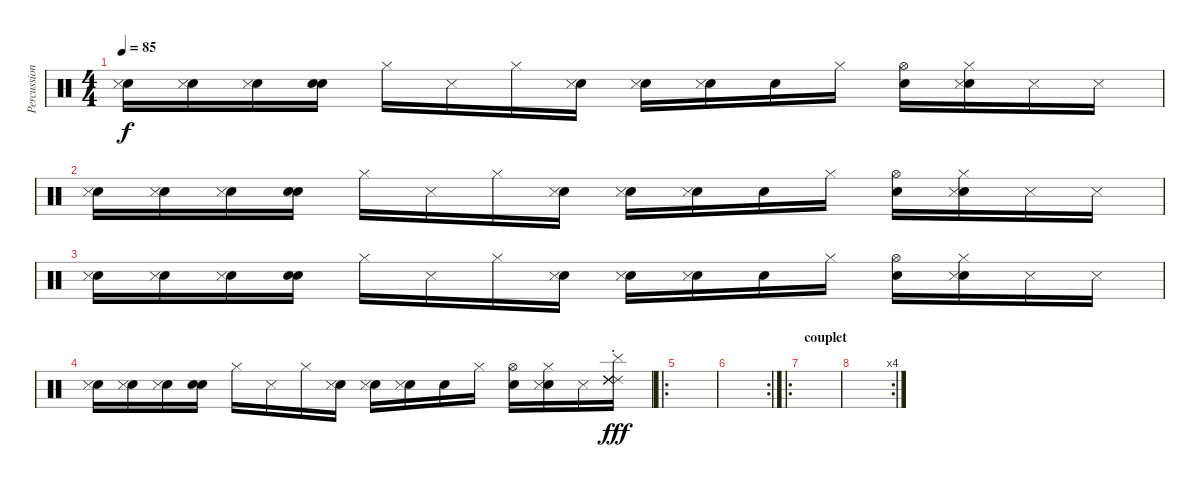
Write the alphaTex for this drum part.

\track ("Percussions" "Percussion") {instrument percussion}
\staff {score}
\articulation defaults
\ts (4 4)
\tempo 85
\clef neutral
\ks c
("Metronome (bell)" "Snare (side stick) 3").16{dy f} ("Metronome (bell)" "Snare (side stick) 3").16 ("Metronome (bell)" "Snare (side stick) 3").16 ("Metronome (bell)" "Snare (hit) 2").16 "Hi-Hat (closed)".16 "Snare (side stick) 3".16 "Hi-Hat (closed)".16 ("Metronome (bell)" "Snare (side stick) 3").16 ("Metronome (bell)" "Snare (side stick) 3").16 ("Metronome (bell)" "Snare (side stick) 3").16 "Snare (hit) 2".16 "Hi-Hat (closed)".16 ("Metronome (bell)" "Hi-Hat (open)").16 ("Metronome (bell)" "Hi-Hat (closed)" "Snare (side stick) 3").16 "Snare (side stick) 3".16 "Snare (side stick) 3".16 |
("Metronome (bell)" "Snare (side stick) 3").16 ("Metronome (bell)" "Snare (side stick) 3").16 ("Metronome (bell)" "Snare (side stick) 3").16 ("Metronome (bell)" "Snare (hit) 2").16 "Hi-Hat (closed)".16 "Snare (side stick) 3".16 "Hi-Hat (closed)".16 ("Metronome (bell)" "Snare (side stick) 3").16 ("Metronome (bell)" "Snare (side stick) 3").16 ("Metronome (bell)" "Snare (side stick) 3").16 "Snare (hit) 2".16 "Hi-Hat (closed)".16 ("Metronome (bell)" "Hi-Hat (open)").16 ("Metronome (bell)" "Hi-Hat (closed)" "Snare (side stick) 3").16 "Snare (side stick) 3".16 "Snare (side stick) 3".16 |
("Metronome (bell)" "Snare (side stick) 3").16 ("Metronome (bell)" "Snare (side stick) 3").16 ("Metronome (bell)" "Snare (side stick) 3").16 ("Metronome (bell)" "Snare (hit) 2").16 "Hi-Hat (closed)".16 "Snare (side stick) 3".16 "Hi-Hat (closed)".16 ("Metronome (bell)" "Snare (side stick) 3").16 ("Metronome (bell)" "Snare (side stick) 3").16 ("Metronome (bell)" "Snare (side stick) 3").16 "Snare (hit) 2".16 "Hi-Hat (closed)".16 ("Metronome (bell)" "Hi-Hat (open)").16 ("Metronome (bell)" "Hi-Hat (closed)" "Snare (side stick) 3").16 "Snare (side stick) 3".16 "Snare (side stick) 3".16 |
("Metronome (bell)" "Snare (side stick) 3").16 ("Metronome (bell)" "Snare (side stick) 3").16 ("Metronome (bell)" "Snare (side stick) 3").16 ("Metronome (bell)" "Snare (hit) 2").16 "Hi-Hat (closed)".16 "Snare (side stick) 3".16 "Hi-Hat (closed)".16 ("Metronome (bell)" "Snare (side stick) 3").16 ("Metronome (bell)" "Snare (side stick) 3").16 ("Metronome (bell)" "Snare (side stick) 3").16 "Snare (hit) 2".16 "Hi-Hat (closed)".16 ("Metronome (bell)" "Hi-Hat (open)").16 ("Metronome (bell)" "Hi-Hat (closed)" "Snare (side stick) 3").16 "Snare (side stick) 3".16 ("Ride (choke) 2" "Ride (choke) 2" "Cymbal (hit)" "Ride (choke) 2" "Ride (choke) 2" "Ride (choke) 2").16{dy fff volume 16} |
\ro
|
\rc 2
|
\ro
\section ("" "couplet")
|
\rc 4
